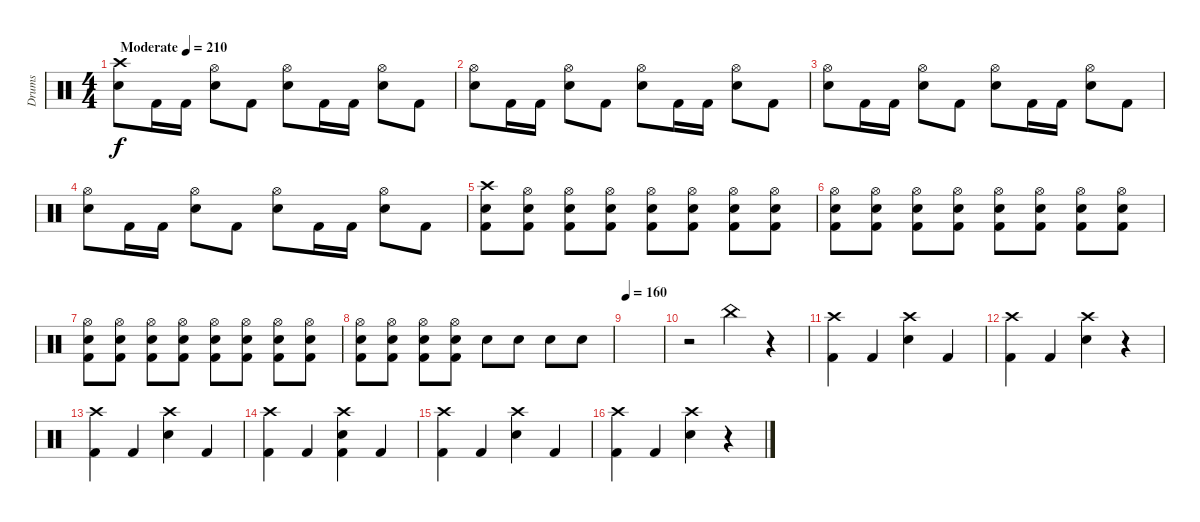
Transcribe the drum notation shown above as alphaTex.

\track ("Drums" "Drums") {instrument percussion}
\staff {score}
\articulation defaults
\ts (4 4)
\tempo (210 "Moderate")
\clef neutral
\ks c
("Crash high (hit)" "Snare (hit) 2").8{dy f} "Kick (hit) 2".16 "Kick (hit) 2".16 ("Hi-Hat (open)" "Snare (hit) 2").8 "Kick (hit) 2".8 ("Hi-Hat (open)" "Snare (hit) 2").8 "Kick (hit) 2".16 "Kick (hit) 2".16 ("Hi-Hat (open)" "Snare (hit) 2").8 "Kick (hit) 2".8 |
("Hi-Hat (open)" "Snare (hit) 2").8 "Kick (hit) 2".16 "Kick (hit) 2".16 ("Hi-Hat (open)" "Snare (hit) 2").8 "Kick (hit) 2".8 ("Hi-Hat (open)" "Snare (hit) 2").8 "Kick (hit) 2".16 "Kick (hit) 2".16 ("Hi-Hat (open)" "Snare (hit) 2").8 "Kick (hit) 2".8 |
("Hi-Hat (open)" "Snare (hit) 2").8 "Kick (hit) 2".16 "Kick (hit) 2".16 ("Hi-Hat (open)" "Snare (hit) 2").8 "Kick (hit) 2".8 ("Hi-Hat (open)" "Snare (hit) 2").8 "Kick (hit) 2".16 "Kick (hit) 2".16 ("Hi-Hat (open)" "Snare (hit) 2").8 "Kick (hit) 2".8 |
("Hi-Hat (open)" "Snare (hit) 2").8 "Kick (hit) 2".16 "Kick (hit) 2".16 ("Hi-Hat (open)" "Snare (hit) 2").8 "Kick (hit) 2".8 ("Hi-Hat (open)" "Snare (hit) 2").8 "Kick (hit) 2".16 "Kick (hit) 2".16 ("Hi-Hat (open)" "Snare (hit) 2").8 "Kick (hit) 2".8 |
("Crash high (hit)" "Snare (hit) 2" "Kick (hit) 2").8 ("Hi-Hat (open)" "Snare (hit) 2" "Kick (hit) 2").8 ("Hi-Hat (open)" "Snare (hit) 2" "Kick (hit) 2").8 ("Hi-Hat (open)" "Snare (hit) 2" "Kick (hit) 2").8 ("Hi-Hat (open)" "Snare (hit) 2" "Kick (hit) 2").8 ("Hi-Hat (open)" "Snare (hit) 2" "Kick (hit) 2").8 ("Hi-Hat (open)" "Snare (hit) 2" "Kick (hit) 2").8 ("Hi-Hat (open)" "Snare (hit) 2" "Kick (hit) 2").8 |
("Hi-Hat (open)" "Snare (hit) 2" "Kick (hit) 2").8 ("Hi-Hat (open)" "Snare (hit) 2" "Kick (hit) 2").8 ("Hi-Hat (open)" "Snare (hit) 2" "Kick (hit) 2").8 ("Hi-Hat (open)" "Snare (hit) 2" "Kick (hit) 2").8 ("Hi-Hat (open)" "Snare (hit) 2" "Kick (hit) 2").8 ("Hi-Hat (open)" "Snare (hit) 2" "Kick (hit) 2").8 ("Hi-Hat (open)" "Snare (hit) 2" "Kick (hit) 2").8 ("Hi-Hat (open)" "Snare (hit) 2" "Kick (hit) 2").8 |
("Hi-Hat (open)" "Snare (hit) 2" "Kick (hit) 2").8 ("Hi-Hat (open)" "Snare (hit) 2" "Kick (hit) 2").8 ("Hi-Hat (open)" "Snare (hit) 2" "Kick (hit) 2").8 ("Hi-Hat (open)" "Snare (hit) 2" "Kick (hit) 2").8 ("Hi-Hat (open)" "Snare (hit) 2" "Kick (hit) 2").8 ("Hi-Hat (open)" "Snare (hit) 2" "Kick (hit) 2").8 ("Hi-Hat (open)" "Snare (hit) 2" "Kick (hit) 2").8 ("Hi-Hat (open)" "Snare (hit) 2" "Kick (hit) 2").8 |
("Hi-Hat (open)" "Snare (hit) 2" "Kick (hit) 2").8 ("Hi-Hat (open)" "Snare (hit) 2" "Kick (hit) 2").8 ("Hi-Hat (open)" "Snare (hit) 2" "Kick (hit) 2").8 ("Hi-Hat (open)" "Snare (hit) 2" "Kick (hit) 2").8 "Snare (hit) 2".8 "Snare (hit) 2".8 "Snare (hit) 2".8 "Snare (hit) 2".8 |
\tempo 160
|
r.2 "China (hit)".4 r.4 |
("Crash high (hit)" "Kick (hit) 2").4 "Kick (hit) 2".4 ("Crash high (hit)" "Snare (hit) 2").4 "Kick (hit) 2".4 |
("Crash high (hit)" "Kick (hit) 2").4 "Kick (hit) 2".4 ("Crash high (hit)" "Snare (hit) 2").4 r.4 |
("Crash high (hit)" "Kick (hit) 2").4 "Kick (hit) 2".4 ("Crash high (hit)" "Snare (hit) 2").4 "Kick (hit) 2".4 |
("Crash high (hit)" "Kick (hit) 2").4 "Kick (hit) 2".4 ("Crash high (hit)" "Snare (hit) 2" "Kick (hit) 2").4 "Kick (hit) 2".4 |
("Crash high (hit)" "Kick (hit) 2").4 "Kick (hit) 2".4 ("Crash high (hit)" "Snare (hit) 2").4 "Kick (hit) 2".4 |
("Crash high (hit)" "Kick (hit) 2").4 "Kick (hit) 2".4 ("Crash high (hit)" "Snare (hit) 2").4 r.4
